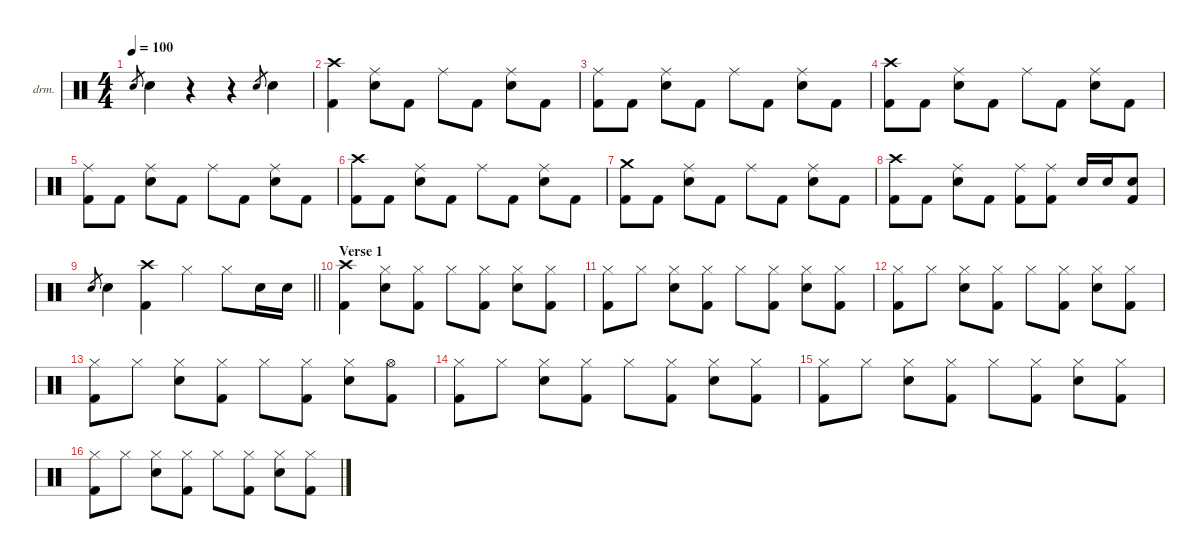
\defaultSystemsLayout 4
\hideDynamics
\bracketExtendMode nobrackets
\firstSystemTrackNameOrientation horizontal
\otherSystemsTrackNameOrientation horizontal
\track ("Drums" "drm.") {instrument percussion}
\staff {score}
\articulation defaults
\ts (4 4)
\beaming (8 2 2 2 2)
\tempo 100
\clef neutral
\ks c "Snare (hit) 2".8{gr dy mf} "Snare (hit) 2".4{dy f}
r.4 r.4 "Snare (hit) 2".8{gr dy mf} "Snare (hit) 2".4{dy f} |
("Kick (hit) 2" "Crash high (hit)").4 ("Snare (hit) 2" "Ride (middle)").8 "Kick (hit) 2".8 "Ride (middle)".8 "Kick (hit) 2".8 ("Snare (hit) 2" "Ride (middle)").8 "Kick (hit) 2".8 |
("Kick (hit) 2" "Ride (middle)").8 "Kick (hit) 2".8 ("Snare (hit) 2" "Ride (middle)").8 "Kick (hit) 2".8 "Ride (middle)".8 "Kick (hit) 2".8 ("Snare (hit) 2" "Ride (middle)").8 "Kick (hit) 2".8 |
("Kick (hit) 2" "Crash high (hit)").8 "Kick (hit) 2".8 ("Snare (hit) 2" "Ride (middle)").8 "Kick (hit) 2".8 "Ride (middle)".8 "Kick (hit) 2".8 ("Snare (hit) 2" "Ride (middle)").8 "Kick (hit) 2".8 |
("Kick (hit) 2" "Ride (middle)").8 "Kick (hit) 2".8 ("Snare (hit) 2" "Ride (middle)").8 "Kick (hit) 2".8 "Ride (middle)".8 "Kick (hit) 2".8 ("Snare (hit) 2" "Ride (middle)").8 "Kick (hit) 2".8 |
("Kick (hit) 2" "Crash high (hit)").8 "Kick (hit) 2".8 ("Snare (hit) 2" "Ride (middle)").8 "Kick (hit) 2".8 "Ride (middle)".8 "Kick (hit) 2".8 ("Snare (hit) 2" "Ride (middle)").8 "Kick (hit) 2".8 |
("Kick (hit) 2" "Crash medium (hit)").8 "Kick (hit) 2".8 ("Snare (hit) 2" "Ride (middle)").8 "Kick (hit) 2".8 "Ride (middle)".8 "Kick (hit) 2".8 ("Snare (hit) 2" "Ride (middle)").8 "Kick (hit) 2".8 |
("Kick (hit) 2" "Crash high (hit)").8 "Kick (hit) 2".8 ("Snare (hit) 2" "Ride (middle)").8 "Kick (hit) 2".8 ("Kick (hit) 2" "Ride (middle)").8 ("Kick (hit) 2" "Ride (middle)").8 "Snare (hit) 2".16 "Snare (hit) 2".16 ("Kick (hit) 2" "Snare (hit) 2").8 |
\barLineRight lightlight "Snare (hit) 2".8{gr dy mf} "Snare (hit) 2".4{dy f}
("Kick (hit) 2" "Crash high (hit)").4 "Hi-Hat (closed)".4 "Hi-Hat (closed)".8 "Snare (hit) 2".16 "Snare (hit) 2".16 |
\section ("" "Verse 1")
("Kick (hit) 2" "Crash high (hit)").4 ("Snare (hit) 2" "Hi-Hat (closed)").8 ("Kick (hit) 2" "Hi-Hat (closed)").8 "Hi-Hat (closed)".8 ("Kick (hit) 2" "Hi-Hat (closed)").8 ("Snare (hit) 2" "Hi-Hat (closed)").8 ("Kick (hit) 2" "Hi-Hat (closed)").8 |
("Kick (hit) 2" "Hi-Hat (closed)").8 "Hi-Hat (closed)".8 ("Snare (hit) 2" "Hi-Hat (closed)").8 ("Kick (hit) 2" "Hi-Hat (closed)").8 "Hi-Hat (closed)".8 ("Kick (hit) 2" "Hi-Hat (closed)").8 ("Snare (hit) 2" "Hi-Hat (closed)").8 ("Kick (hit) 2" "Hi-Hat (closed)").8 |
("Kick (hit) 2" "Hi-Hat (closed)").8 "Hi-Hat (closed)".8 ("Snare (hit) 2" "Hi-Hat (closed)").8 ("Kick (hit) 2" "Hi-Hat (closed)").8 "Hi-Hat (closed)".8 ("Kick (hit) 2" "Hi-Hat (closed)").8 ("Snare (hit) 2" "Hi-Hat (closed)").8 ("Kick (hit) 2" "Hi-Hat (closed)").8 |
("Kick (hit) 2" "Hi-Hat (closed)").8 "Hi-Hat (closed)".8 ("Snare (hit) 2" "Hi-Hat (closed)").8 ("Kick (hit) 2" "Hi-Hat (closed)").8 "Hi-Hat (closed)".8 ("Kick (hit) 2" "Hi-Hat (closed)").8 ("Snare (hit) 2" "Hi-Hat (closed)").8 ("Kick (hit) 2" "Hi-Hat (open)").8 |
("Kick (hit) 2" "Hi-Hat (closed)").8 "Hi-Hat (closed)".8 ("Snare (hit) 2" "Hi-Hat (closed)").8 ("Kick (hit) 2" "Hi-Hat (closed)").8 "Hi-Hat (closed)".8 ("Kick (hit) 2" "Hi-Hat (closed)").8 ("Snare (hit) 2" "Hi-Hat (closed)").8 ("Kick (hit) 2" "Hi-Hat (closed)").8 |
("Kick (hit) 2" "Hi-Hat (closed)").8 "Hi-Hat (closed)".8 ("Snare (hit) 2" "Hi-Hat (closed)").8 ("Kick (hit) 2" "Hi-Hat (closed)").8 "Hi-Hat (closed)".8 ("Kick (hit) 2" "Hi-Hat (closed)").8 ("Snare (hit) 2" "Hi-Hat (closed)").8 ("Kick (hit) 2" "Hi-Hat (closed)").8 |
("Kick (hit) 2" "Hi-Hat (closed)").8 "Hi-Hat (closed)".8 ("Snare (hit) 2" "Hi-Hat (closed)").8 ("Kick (hit) 2" "Hi-Hat (closed)").8 "Hi-Hat (closed)".8 ("Kick (hit) 2" "Hi-Hat (closed)").8 ("Snare (hit) 2" "Hi-Hat (closed)").8 ("Kick (hit) 2" "Hi-Hat (closed)").8
